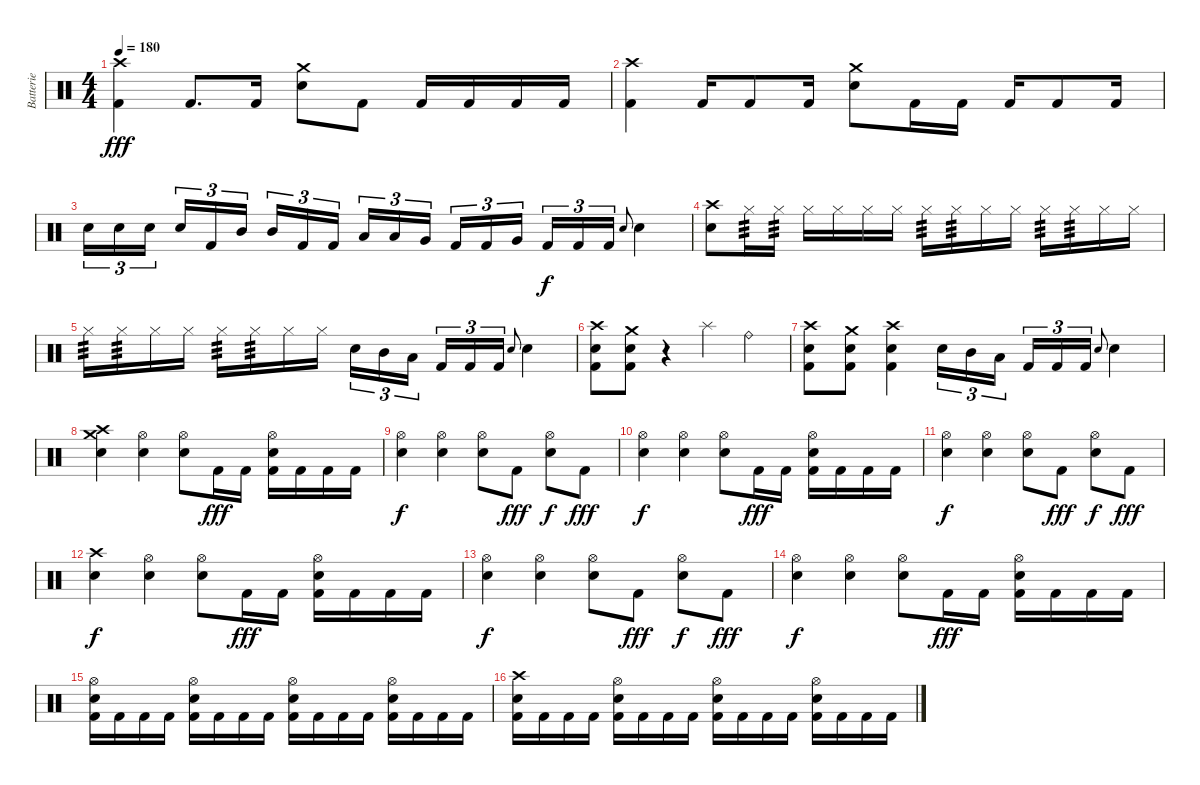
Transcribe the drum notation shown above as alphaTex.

\track ("Batterie" "Batterie") {instrument percussion}
\staff {score}
\articulation defaults
\ts (4 4)
\tempo 180
\clef neutral
\ks c
("Crash high (hit)" "Kick (hit) 2").4{dy fff} "Kick (hit) 2".8{d} "Kick (hit) 2".16 ("Crash medium (hit)" "Electric Snare (hit)").8 "Kick (hit) 2".8 "Kick (hit) 2".16 "Kick (hit) 2".16 "Kick (hit) 2".16 "Kick (hit) 2".16 |
("Crash high (hit)" "Kick (hit) 2").4 "Kick (hit) 2".16 "Kick (hit) 2".8 "Kick (hit) 2".16 ("Crash medium (hit)" "Electric Snare (hit)").8 "Kick (hit) 2".16 "Kick (hit) 2".16 "Kick (hit) 2".16 "Kick (hit) 2".8 "Kick (hit) 2".16 |
"Electric Snare (hit)".16{tu (3 2)} "Electric Snare (hit)".16{tu (3 2)} "Electric Snare (hit)".16{tu (3 2) beam splitsecondary} "Electric Snare (hit)".16{tu (3 2)} "Kick (hit) 2".16{tu (3 2)} "Mid Tom (hit)".16{tu (3 2)} "Mid Tom (hit)".16{tu (3 2)} "Kick (hit) 2".16{tu (3 2)} "Kick (hit) 2".16{tu (3 2) beam splitsecondary} "Low Tom (hit)".16{tu (3 2)} "Low Tom (hit)".16{tu (3 2)} "Very Low Tom (hit)".16{tu (3 2)} "Kick (hit) 2".16{tu (3 2)} "Kick (hit) 2".16{tu (3 2)} "Very Low Tom (hit)".16{tu (3 2) beam splitsecondary} "Kick (hit) 2".16{tu (3 2) dy f} "Kick (hit) 2".16{tu (3 2)} "Kick (hit) 2".16{tu (3 2)} "Electric Snare (hit)".8{gr onbeat} "Electric Snare (hit)".4 |
("Crash high (hit)" "Electric Snare (hit)").8 "Hi-Hat (closed)".16{tp 3} "Hi-Hat (closed)".16{tp 3} "Hi-Hat (closed)".16 "Hi-Hat (closed)".16 "Hi-Hat (closed)".16 "Hi-Hat (closed)".16 "Hi-Hat (closed)".16{tp 3} "Hi-Hat (closed)".16{tp 3} "Hi-Hat (closed)".16 "Hi-Hat (closed)".16 "Hi-Hat (closed)".16{tp 3} "Hi-Hat (closed)".16{tp 3} "Hi-Hat (closed)".16 "Hi-Hat (closed)".16 |
"Hi-Hat (closed)".16{tp 3} "Hi-Hat (closed)".16{tp 3} "Hi-Hat (closed)".16 "Hi-Hat (closed)".16 "Hi-Hat (closed)".16{tp 3} "Hi-Hat (closed)".16{tp 3} "Hi-Hat (closed)".16 "Hi-Hat (closed)".16 "Electric Snare (hit)".16{tu (3 2)} "Mid Tom (hit)".16{tu (3 2)} "Low Tom (hit)".16{tu (3 2) beam splitsecondary} "Kick (hit) 2".16{tu (3 2)} "Kick (hit) 2".16{tu (3 2)} "Kick (hit) 2".16{tu (3 2)} "Electric Snare (hit)".8{gr onbeat} "Electric Snare (hit)".4 |
("Crash high (hit)" "Kick (hit) 2" "Electric Snare (hit)").8 ("Crash medium (hit)" "Kick (hit) 2" "Electric Snare (hit)").8 r.4 "Splash (hit)".4 "Ride (bell)".4 |
("Crash high (hit)" "Kick (hit) 2" "Electric Snare (hit)").8 ("Crash medium (hit)" "Kick (hit) 2" "Electric Snare (hit)").8 ("Crash high (hit)" "Kick (hit) 2" "Electric Snare (hit)").4 "Electric Snare (hit)".16{tu (3 2)} "Mid Tom (hit)".16{tu (3 2)} "Low Tom (hit)".16{tu (3 2) beam splitsecondary} "Kick (hit) 2".16{tu (3 2)} "Kick (hit) 2".16{tu (3 2)} "Kick (hit) 2".16{tu (3 2)} "Electric Snare (hit)".8{gr onbeat} "Electric Snare (hit)".4 |
("Crash high (hit)" "Crash medium (hit)" "Electric Snare (hit)").4 ("Hi-Hat (open)" "Electric Snare (hit)").4 ("Hi-Hat (open)" "Electric Snare (hit)").8 "Kick (hit) 2".16{dy fff} "Kick (hit) 2".16 ("Hi-Hat (open)" "Electric Snare (hit)" "Kick (hit) 2").16 "Kick (hit) 2".16 "Kick (hit) 2".16 "Kick (hit) 2".16 |
("Hi-Hat (open)" "Electric Snare (hit)").4{dy f} ("Hi-Hat (open)" "Electric Snare (hit)").4 ("Hi-Hat (open)" "Electric Snare (hit)").8 "Kick (hit) 2".8{dy fff} ("Hi-Hat (open)" "Electric Snare (hit)").8{dy f} "Kick (hit) 2".8{dy fff} |
("Hi-Hat (open)" "Electric Snare (hit)").4{dy f} ("Hi-Hat (open)" "Electric Snare (hit)").4 ("Hi-Hat (open)" "Electric Snare (hit)").8 "Kick (hit) 2".16{dy fff} "Kick (hit) 2".16 ("Hi-Hat (open)" "Electric Snare (hit)" "Kick (hit) 2").16 "Kick (hit) 2".16 "Kick (hit) 2".16 "Kick (hit) 2".16 |
("Hi-Hat (open)" "Electric Snare (hit)").4{dy f} ("Hi-Hat (open)" "Electric Snare (hit)").4 ("Hi-Hat (open)" "Electric Snare (hit)").8 "Kick (hit) 2".8{dy fff} ("Hi-Hat (open)" "Electric Snare (hit)").8{dy f} "Kick (hit) 2".8{dy fff} |
("Crash high (hit)" "Electric Snare (hit)").4{dy f} ("Hi-Hat (open)" "Electric Snare (hit)").4 ("Hi-Hat (open)" "Electric Snare (hit)").8 "Kick (hit) 2".16{dy fff} "Kick (hit) 2".16 ("Hi-Hat (open)" "Electric Snare (hit)" "Kick (hit) 2").16 "Kick (hit) 2".16 "Kick (hit) 2".16 "Kick (hit) 2".16 |
("Hi-Hat (open)" "Electric Snare (hit)").4{dy f} ("Hi-Hat (open)" "Electric Snare (hit)").4 ("Hi-Hat (open)" "Electric Snare (hit)").8 "Kick (hit) 2".8{dy fff} ("Hi-Hat (open)" "Electric Snare (hit)").8{dy f} "Kick (hit) 2".8{dy fff} |
("Hi-Hat (open)" "Electric Snare (hit)").4{dy f} ("Hi-Hat (open)" "Electric Snare (hit)").4 ("Hi-Hat (open)" "Electric Snare (hit)").8 "Kick (hit) 2".16{dy fff} "Kick (hit) 2".16 ("Hi-Hat (open)" "Electric Snare (hit)" "Kick (hit) 2").16 "Kick (hit) 2".16 "Kick (hit) 2".16 "Kick (hit) 2".16 |
("Hi-Hat (open)" "Electric Snare (hit)" "Kick (hit) 2").16 "Kick (hit) 2".16 "Kick (hit) 2".16 "Kick (hit) 2".16 ("Hi-Hat (open)" "Electric Snare (hit)" "Kick (hit) 2").16 "Kick (hit) 2".16 "Kick (hit) 2".16 "Kick (hit) 2".16 ("Hi-Hat (open)" "Electric Snare (hit)" "Kick (hit) 2").16 "Kick (hit) 2".16 "Kick (hit) 2".16 "Kick (hit) 2".16 ("Hi-Hat (open)" "Electric Snare (hit)" "Kick (hit) 2").16 "Kick (hit) 2".16 "Kick (hit) 2".16 "Kick (hit) 2".16 |
("Crash high (hit)" "Electric Snare (hit)" "Kick (hit) 2").16 "Kick (hit) 2".16 "Kick (hit) 2".16 "Kick (hit) 2".16 ("Hi-Hat (open)" "Electric Snare (hit)" "Kick (hit) 2").16 "Kick (hit) 2".16 "Kick (hit) 2".16 "Kick (hit) 2".16 ("Hi-Hat (open)" "Electric Snare (hit)" "Kick (hit) 2").16 "Kick (hit) 2".16 "Kick (hit) 2".16 "Kick (hit) 2".16 ("Hi-Hat (open)" "Electric Snare (hit)" "Kick (hit) 2").16 "Kick (hit) 2".16 "Kick (hit) 2".16 "Kick (hit) 2".16
